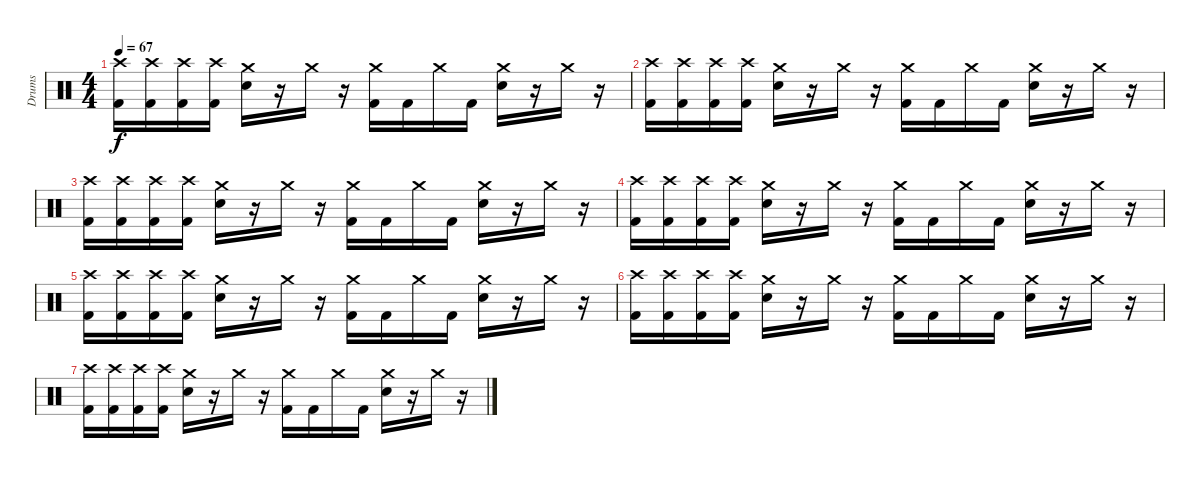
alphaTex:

\track ("Drums" "Drums") {instrument percussion}
\staff {score}
\articulation defaults
\ts (4 4)
\tempo 67
\clef neutral
\ks c
("Crash high (hit)" "Kick (hit) 2").16{dy f} ("Crash high (hit)" "Kick (hit) 2").16 ("Crash high (hit)" "Kick (hit) 2").16 ("Crash high (hit)" "Kick (hit) 2").16 ("Crash medium (hit)" "Electric Snare (hit)").16 r.16 "Crash medium (hit)".16 r.16 ("Crash medium (hit)" "Kick (hit) 2").16 "Kick (hit) 2".16 "Crash medium (hit)".16 "Kick (hit) 2".16 ("Crash medium (hit)" "Electric Snare (hit)").16 r.16 "Crash medium (hit)".16 r.16 |
("Crash high (hit)" "Kick (hit) 2").16 ("Crash high (hit)" "Kick (hit) 2").16 ("Crash high (hit)" "Kick (hit) 2").16 ("Crash high (hit)" "Kick (hit) 2").16 ("Crash medium (hit)" "Electric Snare (hit)").16 r.16 "Crash medium (hit)".16 r.16 ("Crash medium (hit)" "Kick (hit) 2").16 "Kick (hit) 2".16 "Crash medium (hit)".16 "Kick (hit) 2".16 ("Crash medium (hit)" "Electric Snare (hit)").16 r.16 "Crash medium (hit)".16 r.16 |
("Crash high (hit)" "Kick (hit) 2").16 ("Crash high (hit)" "Kick (hit) 2").16 ("Crash high (hit)" "Kick (hit) 2").16 ("Crash high (hit)" "Kick (hit) 2").16 ("Crash medium (hit)" "Electric Snare (hit)").16 r.16 "Crash medium (hit)".16 r.16 ("Crash medium (hit)" "Kick (hit) 2").16 "Kick (hit) 2".16 "Crash medium (hit)".16 "Kick (hit) 2".16 ("Crash medium (hit)" "Electric Snare (hit)").16 r.16 "Crash medium (hit)".16 r.16 |
("Crash high (hit)" "Kick (hit) 2").16 ("Crash high (hit)" "Kick (hit) 2").16 ("Crash high (hit)" "Kick (hit) 2").16 ("Crash high (hit)" "Kick (hit) 2").16 ("Crash medium (hit)" "Electric Snare (hit)").16 r.16 "Crash medium (hit)".16 r.16 ("Crash medium (hit)" "Kick (hit) 2").16 "Kick (hit) 2".16 "Crash medium (hit)".16 "Kick (hit) 2".16 ("Crash medium (hit)" "Electric Snare (hit)").16 r.16 "Crash medium (hit)".16 r.16 |
("Crash high (hit)" "Kick (hit) 2").16 ("Crash high (hit)" "Kick (hit) 2").16 ("Crash high (hit)" "Kick (hit) 2").16 ("Crash high (hit)" "Kick (hit) 2").16 ("Crash medium (hit)" "Electric Snare (hit)").16 r.16 "Crash medium (hit)".16 r.16 ("Crash medium (hit)" "Kick (hit) 2").16 "Kick (hit) 2".16 "Crash medium (hit)".16 "Kick (hit) 2".16 ("Crash medium (hit)" "Electric Snare (hit)").16 r.16 "Crash medium (hit)".16 r.16 |
("Crash high (hit)" "Kick (hit) 2").16 ("Crash high (hit)" "Kick (hit) 2").16 ("Crash high (hit)" "Kick (hit) 2").16 ("Crash high (hit)" "Kick (hit) 2").16 ("Crash medium (hit)" "Electric Snare (hit)").16 r.16 "Crash medium (hit)".16 r.16 ("Crash medium (hit)" "Kick (hit) 2").16 "Kick (hit) 2".16 "Crash medium (hit)".16 "Kick (hit) 2".16 ("Crash medium (hit)" "Electric Snare (hit)").16 r.16 "Crash medium (hit)".16 r.16 |
("Crash high (hit)" "Kick (hit) 2").16 ("Crash high (hit)" "Kick (hit) 2").16 ("Crash high (hit)" "Kick (hit) 2").16 ("Crash high (hit)" "Kick (hit) 2").16 ("Crash medium (hit)" "Electric Snare (hit)").16 r.16 "Crash medium (hit)".16 r.16 ("Crash medium (hit)" "Kick (hit) 2").16 "Kick (hit) 2".16 "Crash medium (hit)".16 "Kick (hit) 2".16 ("Crash medium (hit)" "Electric Snare (hit)").16 r.16 "Crash medium (hit)".16 r.16
